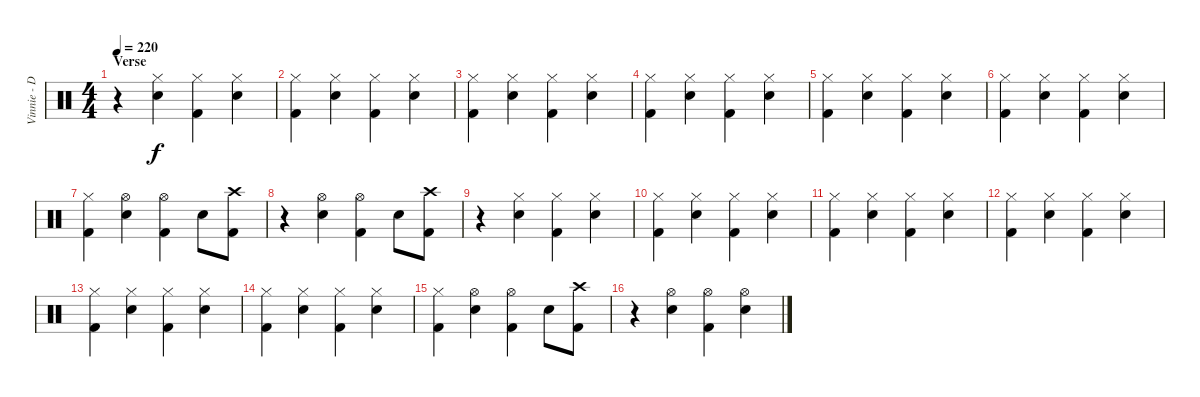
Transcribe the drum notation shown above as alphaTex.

\track ("Vinnie - Drums" "Vinnie - D") {instrument percussion}
\staff {score}
\articulation defaults
\ts (4 4)
\section ("" "Verse")
\tempo 220
\clef neutral
\ks c
r.4{dy f} ("Hi-Hat (closed)" "Electric Snare (hit)").4 ("Hi-Hat (closed)" "Kick (hit) 2").4 ("Hi-Hat (closed)" "Electric Snare (hit)").4 |
("Hi-Hat (closed)" "Kick (hit) 2").4 ("Hi-Hat (closed)" "Electric Snare (hit)").4 ("Hi-Hat (closed)" "Kick (hit) 2").4 ("Hi-Hat (closed)" "Electric Snare (hit)").4 |
("Hi-Hat (closed)" "Kick (hit) 2").4 ("Hi-Hat (closed)" "Electric Snare (hit)").4 ("Hi-Hat (closed)" "Kick (hit) 2").4 ("Hi-Hat (closed)" "Electric Snare (hit)").4 |
("Hi-Hat (closed)" "Kick (hit) 2").4 ("Hi-Hat (closed)" "Electric Snare (hit)").4 ("Hi-Hat (closed)" "Kick (hit) 2").4 ("Hi-Hat (closed)" "Electric Snare (hit)").4 |
("Hi-Hat (closed)" "Kick (hit) 2").4 ("Hi-Hat (closed)" "Electric Snare (hit)").4 ("Hi-Hat (closed)" "Kick (hit) 2").4 ("Hi-Hat (closed)" "Electric Snare (hit)").4 |
("Hi-Hat (closed)" "Kick (hit) 2").4 ("Hi-Hat (closed)" "Electric Snare (hit)").4 ("Hi-Hat (closed)" "Kick (hit) 2").4 ("Hi-Hat (closed)" "Electric Snare (hit)").4 |
("Hi-Hat (closed)" "Kick (hit) 2").4 ("Hi-Hat (open)" "Electric Snare (hit)").4 ("Hi-Hat (open)" "Kick (hit) 2").4 "Electric Snare (hit)".8 ("Crash high (hit)" "Kick (hit) 2").8 |
r.4 ("Hi-Hat (open)" "Electric Snare (hit)").4 ("Hi-Hat (open)" "Kick (hit) 2").4 "Electric Snare (hit)".8 ("Crash high (hit)" "Kick (hit) 2").8 |
r.4 ("Hi-Hat (closed)" "Electric Snare (hit)").4 ("Hi-Hat (closed)" "Kick (hit) 2").4 ("Hi-Hat (closed)" "Electric Snare (hit)").4 |
("Hi-Hat (closed)" "Kick (hit) 2").4 ("Hi-Hat (closed)" "Electric Snare (hit)").4 ("Hi-Hat (closed)" "Kick (hit) 2").4 ("Hi-Hat (closed)" "Electric Snare (hit)").4 |
("Hi-Hat (closed)" "Kick (hit) 2").4 ("Hi-Hat (closed)" "Electric Snare (hit)").4 ("Hi-Hat (closed)" "Kick (hit) 2").4 ("Hi-Hat (closed)" "Electric Snare (hit)").4 |
("Hi-Hat (closed)" "Kick (hit) 2").4 ("Hi-Hat (closed)" "Electric Snare (hit)").4 ("Hi-Hat (closed)" "Kick (hit) 2").4 ("Hi-Hat (closed)" "Electric Snare (hit)").4 |
("Hi-Hat (closed)" "Kick (hit) 2").4 ("Hi-Hat (closed)" "Electric Snare (hit)").4 ("Hi-Hat (closed)" "Kick (hit) 2").4 ("Hi-Hat (closed)" "Electric Snare (hit)").4 |
("Hi-Hat (closed)" "Kick (hit) 2").4 ("Hi-Hat (closed)" "Electric Snare (hit)").4 ("Hi-Hat (closed)" "Kick (hit) 2").4 ("Hi-Hat (closed)" "Electric Snare (hit)").4 |
("Hi-Hat (closed)" "Kick (hit) 2").4 ("Hi-Hat (open)" "Electric Snare (hit)").4 ("Hi-Hat (open)" "Kick (hit) 2").4 "Electric Snare (hit)".8 ("Crash high (hit)" "Kick (hit) 2").8 |
r.4 ("Hi-Hat (open)" "Electric Snare (hit)").4 ("Hi-Hat (open)" "Kick (hit) 2").4 ("Hi-Hat (open)" "Electric Snare (hit)").4
